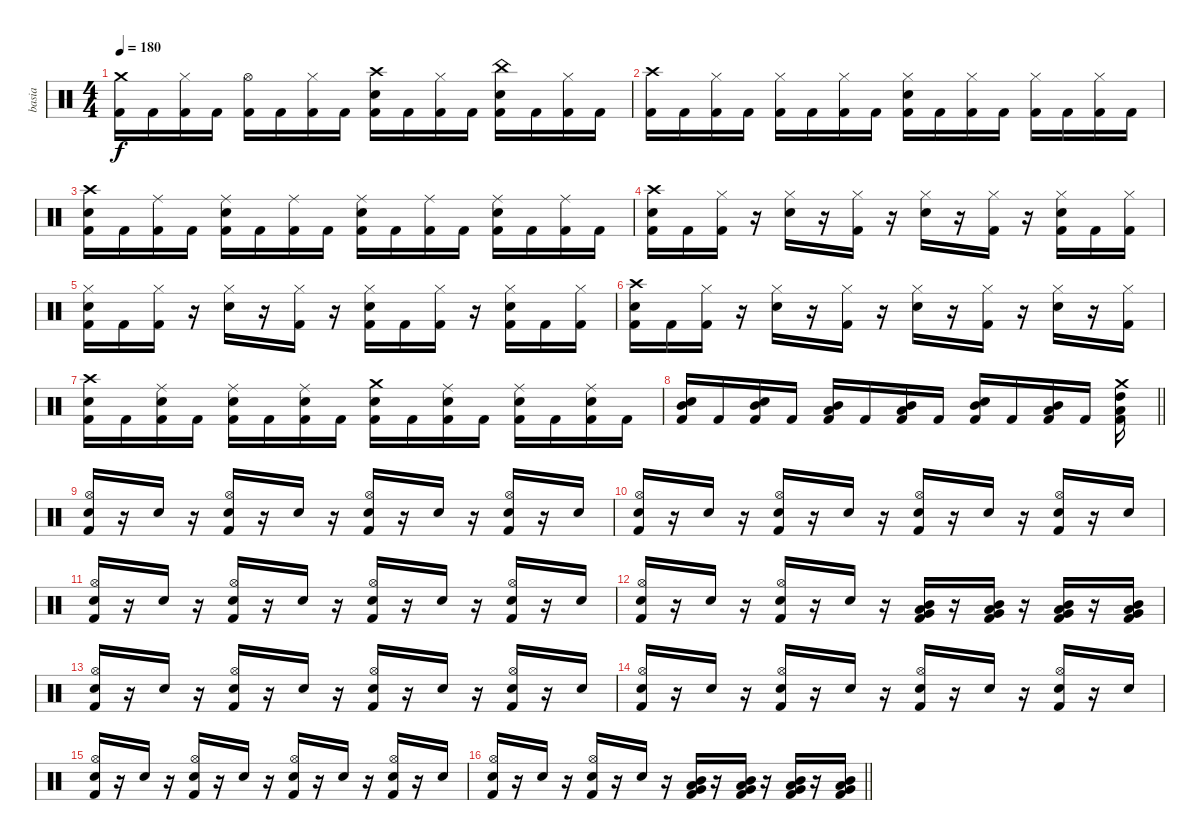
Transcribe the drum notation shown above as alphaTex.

\track ("basia" "basia") {instrument percussion}
\staff {score}
\articulation defaults
\ts (4 4)
\tempo 180
\clef neutral
\ks c
("Crash medium (hit)" "Kick (hit) 2").16{dy f} "Kick (hit) 2".16 ("Hi-Hat (closed)" "Kick (hit) 2").16 "Kick (hit) 2".16 ("Hi-Hat (open)" "Kick (hit) 2").16 "Kick (hit) 2".16 ("Hi-Hat (closed)" "Kick (hit) 2").16 "Kick (hit) 2".16 ("Crash high (hit)" "Snare (hit) 2" "Kick (hit) 2").16 "Kick (hit) 2".16 ("Hi-Hat (closed)" "Kick (hit) 2").16 "Kick (hit) 2".16 ("China (hit)" "Snare (hit) 2" "Kick (hit) 2").16 "Kick (hit) 2".16 ("Hi-Hat (closed)" "Kick (hit) 2").16 "Kick (hit) 2".16 |
("Crash high (hit)" "Kick (hit) 2").16 "Kick (hit) 2".16 ("Hi-Hat (closed)" "Kick (hit) 2").16 "Kick (hit) 2".16 ("Hi-Hat (closed)" "Kick (hit) 2").16 "Kick (hit) 2".16 ("Hi-Hat (closed)" "Kick (hit) 2").16 "Kick (hit) 2".16 ("Hi-Hat (closed)" "Snare (hit) 2" "Kick (hit) 2").16 "Kick (hit) 2".16 ("Hi-Hat (closed)" "Kick (hit) 2").16 "Kick (hit) 2".16 ("Hi-Hat (closed)" "Kick (hit) 2").16 "Kick (hit) 2".16 ("Hi-Hat (closed)" "Kick (hit) 2").16 "Kick (hit) 2".16 |
("Crash high (hit)" "Snare (hit) 2" "Kick (hit) 2").16 "Kick (hit) 2".16 ("Ride (middle)" "Kick (hit) 2").16 "Kick (hit) 2".16 ("Ride (middle)" "Snare (hit) 2" "Kick (hit) 2").16 "Kick (hit) 2".16 ("Ride (middle)" "Kick (hit) 2").16 "Kick (hit) 2".16 ("Ride (middle)" "Snare (hit) 2" "Kick (hit) 2").16 "Kick (hit) 2".16 ("Ride (middle)" "Kick (hit) 2").16 "Kick (hit) 2".16 ("Ride (middle)" "Snare (hit) 2" "Kick (hit) 2").16 "Kick (hit) 2".16 ("Ride (middle)" "Kick (hit) 2").16 "Kick (hit) 2".16 |
("Crash high (hit)" "Snare (hit) 2" "Kick (hit) 2").16 "Kick (hit) 2".16 ("Hi-Hat (closed)" "Kick (hit) 2").16 r.16 ("Hi-Hat (closed)" "Snare (hit) 2").16 r.16 ("Hi-Hat (closed)" "Kick (hit) 2").16 r.16 ("Hi-Hat (closed)" "Snare (hit) 2").16 r.16 ("Hi-Hat (closed)" "Kick (hit) 2").16 r.16 ("Hi-Hat (closed)" "Snare (hit) 2" "Kick (hit) 2").16 "Kick (hit) 2".16 ("Hi-Hat (closed)" "Kick (hit) 2").16 |
("Hi-Hat (closed)" "Snare (hit) 2" "Kick (hit) 2").16 "Kick (hit) 2".16 ("Hi-Hat (closed)" "Kick (hit) 2").16 r.16 ("Hi-Hat (closed)" "Snare (hit) 2").16 r.16 ("Hi-Hat (closed)" "Kick (hit) 2").16 r.16 ("Hi-Hat (closed)" "Snare (hit) 2" "Kick (hit) 2").16 "Kick (hit) 2".16 ("Hi-Hat (closed)" "Kick (hit) 2").16 r.16 ("Hi-Hat (closed)" "Snare (hit) 2" "Kick (hit) 2").16 "Kick (hit) 2".16 ("Hi-Hat (closed)" "Kick (hit) 2").16 |
("Crash high (hit)" "Snare (hit) 2" "Kick (hit) 2").16 "Kick (hit) 2".16 ("Hi-Hat (closed)" "Kick (hit) 2").16 r.16 ("Hi-Hat (closed)" "Snare (hit) 2").16 r.16 ("Hi-Hat (closed)" "Kick (hit) 2").16 r.16 ("Hi-Hat (closed)" "Snare (hit) 2").16 r.16 ("Hi-Hat (closed)" "Kick (hit) 2").16 r.16 ("Hi-Hat (closed)" "Snare (hit) 2").16 r.16 ("Hi-Hat (closed)" "Kick (hit) 2").16 |
("Crash high (hit)" "Snare (hit) 2" "Kick (hit) 2").16 "Kick (hit) 2".16 ("Ride (middle)" "Snare (hit) 2" "Kick (hit) 2").16 "Kick (hit) 2".16 ("Ride (middle)" "Snare (hit) 2" "Kick (hit) 2").16 "Kick (hit) 2".16 ("Ride (middle)" "Snare (hit) 2" "Kick (hit) 2").16 "Kick (hit) 2".16 ("Crash medium (hit)" "Snare (hit) 2" "Kick (hit) 2").16 "Kick (hit) 2".16 ("Ride (middle)" "Snare (hit) 2" "Kick (hit) 2").16 "Kick (hit) 2".16 ("Ride (middle)" "Snare (hit) 2" "Kick (hit) 2").16 "Kick (hit) 2".16 ("Ride (middle)" "Snare (hit) 2" "Kick (hit) 2").16 "Kick (hit) 2".16 |
\barLineRight lightlight
("Snare (hit) 2" "Mid Tom (hit)" "Kick (hit) 2").16 "Kick (hit) 2".16 ("Snare (hit) 2" "Mid Tom (hit)" "Kick (hit) 2").16 "Kick (hit) 2".16 ("Low Tom (hit)" "Mid Tom (hit)" "Kick (hit) 2").16 "Kick (hit) 2".16 ("Low Tom (hit)" "Mid Tom (hit)" "Kick (hit) 2").16 "Kick (hit) 2".16 ("Snare (hit) 2" "Mid Tom (hit)" "Kick (hit) 2").16 "Kick (hit) 2".16 ("Mid Tom (hit)" "Low Tom (hit)" "Kick (hit) 2").16 "Kick (hit) 2".16 ("Crash medium (hit)" "High Tom (hit)" "Low Tom (hit)" "Kick (hit) 2").16 |
("Hi-Hat (open)" "Snare (hit) 2" "Kick (hit) 2").16 r.16 "Snare (hit) 2".16 r.16 ("Hi-Hat (open)" "Snare (hit) 2" "Kick (hit) 2").16 r.16 "Snare (hit) 2".16 r.16 ("Hi-Hat (open)" "Snare (hit) 2" "Kick (hit) 2").16 r.16 "Snare (hit) 2".16 r.16 ("Hi-Hat (open)" "Snare (hit) 2" "Kick (hit) 2").16 r.16 "Snare (hit) 2".16 |
("Hi-Hat (open)" "Snare (hit) 2" "Kick (hit) 2").16 r.16 "Snare (hit) 2".16 r.16 ("Hi-Hat (open)" "Snare (hit) 2" "Kick (hit) 2").16 r.16 "Snare (hit) 2".16 r.16 ("Hi-Hat (open)" "Snare (hit) 2" "Kick (hit) 2").16 r.16 "Snare (hit) 2".16 r.16 ("Hi-Hat (open)" "Snare (hit) 2" "Kick (hit) 2").16 r.16 "Snare (hit) 2".16 |
("Hi-Hat (open)" "Snare (hit) 2" "Kick (hit) 2").16 r.16 "Snare (hit) 2".16 r.16 ("Hi-Hat (open)" "Snare (hit) 2" "Kick (hit) 2").16 r.16 "Snare (hit) 2".16 r.16 ("Hi-Hat (open)" "Snare (hit) 2" "Kick (hit) 2").16 r.16 "Snare (hit) 2".16 r.16 ("Hi-Hat (open)" "Snare (hit) 2" "Kick (hit) 2").16 r.16 "Snare (hit) 2".16 |
("Hi-Hat (open)" "Snare (hit) 2" "Kick (hit) 2").16 r.16 "Snare (hit) 2".16 r.16 ("Hi-Hat (open)" "Snare (hit) 2" "Kick (hit) 2").16 r.16 "Snare (hit) 2".16 r.16 ("Mid Tom (hit)" "Low Tom (hit)" "Very Low Tom (hit)" "Kick (hit) 2").16 r.16 ("Mid Tom (hit)" "Low Tom (hit)" "Very Low Tom (hit)" "Kick (hit) 2").16 r.16 ("Mid Tom (hit)" "Low Tom (hit)" "Very Low Tom (hit)" "Kick (hit) 2").16 r.16 ("Mid Tom (hit)" "Low Tom (hit)" "Very Low Tom (hit)" "Kick (hit) 2").16 |
("Hi-Hat (open)" "Snare (hit) 2" "Kick (hit) 2").16 r.16 "Snare (hit) 2".16 r.16 ("Hi-Hat (open)" "Snare (hit) 2" "Kick (hit) 2").16 r.16 "Snare (hit) 2".16 r.16 ("Hi-Hat (open)" "Snare (hit) 2" "Kick (hit) 2").16 r.16 "Snare (hit) 2".16 r.16 ("Hi-Hat (open)" "Snare (hit) 2" "Kick (hit) 2").16 r.16 "Snare (hit) 2".16 |
("Hi-Hat (open)" "Snare (hit) 2" "Kick (hit) 2").16 r.16 "Snare (hit) 2".16 r.16 ("Hi-Hat (open)" "Snare (hit) 2" "Kick (hit) 2").16 r.16 "Snare (hit) 2".16 r.16 ("Hi-Hat (open)" "Snare (hit) 2" "Kick (hit) 2").16 r.16 "Snare (hit) 2".16 r.16 ("Hi-Hat (open)" "Snare (hit) 2" "Kick (hit) 2").16 r.16 "Snare (hit) 2".16 |
("Hi-Hat (open)" "Snare (hit) 2" "Kick (hit) 2").16 r.16 "Snare (hit) 2".16 r.16 ("Hi-Hat (open)" "Snare (hit) 2" "Kick (hit) 2").16 r.16 "Snare (hit) 2".16 r.16 ("Hi-Hat (open)" "Snare (hit) 2" "Kick (hit) 2").16 r.16 "Snare (hit) 2".16 r.16 ("Hi-Hat (open)" "Snare (hit) 2" "Kick (hit) 2").16 r.16 "Snare (hit) 2".16 |
\barLineRight lightlight
("Hi-Hat (open)" "Snare (hit) 2" "Kick (hit) 2").16 r.16 "Snare (hit) 2".16 r.16 ("Hi-Hat (open)" "Snare (hit) 2" "Kick (hit) 2").16 r.16 "Snare (hit) 2".16 r.16 ("Mid Tom (hit)" "Low Tom (hit)" "Very Low Tom (hit)" "Kick (hit) 2").16 r.16 ("Mid Tom (hit)" "Low Tom (hit)" "Very Low Tom (hit)" "Kick (hit) 2").16 r.16 ("Mid Tom (hit)" "Low Tom (hit)" "Very Low Tom (hit)" "Kick (hit) 2").16 r.16 ("Mid Tom (hit)" "Low Tom (hit)" "Very Low Tom (hit)" "Kick (hit) 2").16
